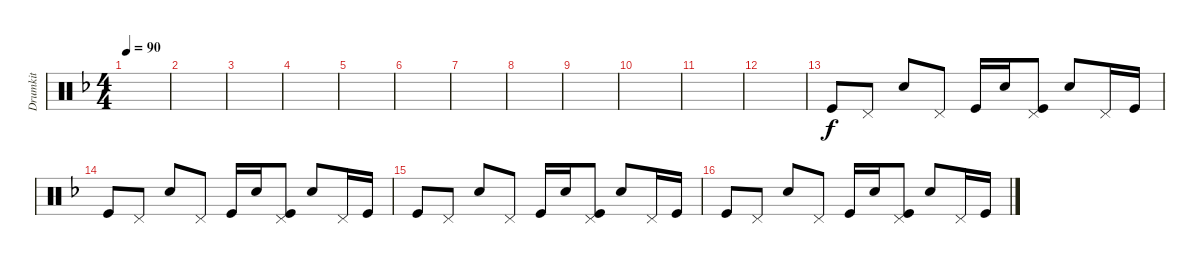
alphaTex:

\track ("Drumkit" "Drumkit") {instrument percussion}
\staff {score}
\articulation defaults
\ts (4 4)
\tempo 90
\clef neutral
\ks f
|
|
|
|
|
|
|
|
|
|
|
|
"Kick (hit)".8 "Pedal Hi-Hat (hit)".8 "Snare (hit) 2".8 "Pedal Hi-Hat (hit)".8 "Kick (hit)".16 "Snare (hit) 2".16 ("Kick (hit)" "Pedal Hi-Hat (hit)").8 "Snare (hit) 2".8 "Pedal Hi-Hat (hit)".16 "Kick (hit)".16 |
"Kick (hit)".8 "Pedal Hi-Hat (hit)".8 "Snare (hit) 2".8 "Pedal Hi-Hat (hit)".8 "Kick (hit)".16 "Snare (hit) 2".16 ("Kick (hit)" "Pedal Hi-Hat (hit)").8 "Snare (hit) 2".8 "Pedal Hi-Hat (hit)".16 "Kick (hit)".16 |
"Kick (hit)".8 "Pedal Hi-Hat (hit)".8 "Snare (hit) 2".8 "Pedal Hi-Hat (hit)".8 "Kick (hit)".16 "Snare (hit) 2".16 ("Kick (hit)" "Pedal Hi-Hat (hit)").8 "Snare (hit) 2".8 "Pedal Hi-Hat (hit)".16 "Kick (hit)".16 |
"Kick (hit)".8 "Pedal Hi-Hat (hit)".8 "Snare (hit) 2".8 "Pedal Hi-Hat (hit)".8 "Kick (hit)".16 "Snare (hit) 2".16 ("Kick (hit)" "Pedal Hi-Hat (hit)").8 "Snare (hit) 2".8 "Pedal Hi-Hat (hit)".16 "Kick (hit)".16
